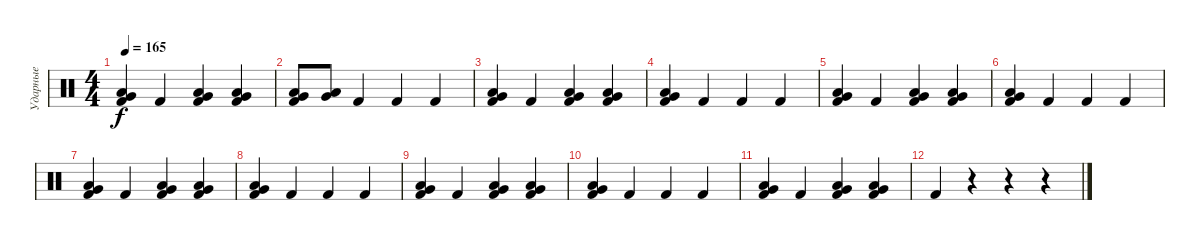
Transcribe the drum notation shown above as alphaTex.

\track ("Ударные" "Ударные") {instrument percussion}
\staff {score}
\articulation defaults
\ts (4 4)
\tempo 165
\clef neutral
\ks c
("Kick (hit) 2" "Very Low Tom (hit)" "Low Floor Tom (hit)").4{dy f} "Kick (hit) 2".4 ("Kick (hit) 2" "Low Floor Tom (hit)" "Very Low Tom (hit)").4 ("Kick (hit) 2" "Low Floor Tom (hit)" "Very Low Tom (hit)").4 |
("Kick (hit) 2" "Very Low Tom (hit)" "Low Floor Tom (hit)").8 ("Low Floor Tom (hit)" "Very Low Tom (hit)").8 "Kick (hit) 2".4 "Kick (hit) 2".4 "Kick (hit) 2".4 |
("Kick (hit) 2" "Very Low Tom (hit)" "Low Floor Tom (hit)").4 "Kick (hit) 2".4 ("Kick (hit) 2" "Low Floor Tom (hit)" "Very Low Tom (hit)").4 ("Kick (hit) 2" "Low Floor Tom (hit)" "Very Low Tom (hit)").4 |
("Kick (hit) 2" "Very Low Tom (hit)" "Low Floor Tom (hit)").4 "Kick (hit) 2".4 "Kick (hit) 2".4 "Kick (hit) 2".4 |
("Kick (hit) 2" "Very Low Tom (hit)" "Low Floor Tom (hit)").4 "Kick (hit) 2".4 ("Kick (hit) 2" "Low Floor Tom (hit)" "Very Low Tom (hit)").4 ("Kick (hit) 2" "Low Floor Tom (hit)" "Very Low Tom (hit)").4 |
("Kick (hit) 2" "Very Low Tom (hit)" "Low Floor Tom (hit)").4 "Kick (hit) 2".4 "Kick (hit) 2".4 "Kick (hit) 2".4 |
("Kick (hit) 2" "Very Low Tom (hit)" "Low Floor Tom (hit)").4 "Kick (hit) 2".4 ("Kick (hit) 2" "Low Floor Tom (hit)" "Very Low Tom (hit)").4 ("Kick (hit) 2" "Low Floor Tom (hit)" "Very Low Tom (hit)").4 |
("Kick (hit) 2" "Very Low Tom (hit)" "Low Floor Tom (hit)").4 "Kick (hit) 2".4 "Kick (hit) 2".4 "Kick (hit) 2".4 |
("Kick (hit) 2" "Very Low Tom (hit)" "Low Floor Tom (hit)").4 "Kick (hit) 2".4 ("Kick (hit) 2" "Low Floor Tom (hit)" "Very Low Tom (hit)").4 ("Kick (hit) 2" "Low Floor Tom (hit)" "Very Low Tom (hit)").4 |
("Kick (hit) 2" "Very Low Tom (hit)" "Low Floor Tom (hit)").4 "Kick (hit) 2".4 "Kick (hit) 2".4 "Kick (hit) 2".4 |
("Kick (hit) 2" "Very Low Tom (hit)" "Low Floor Tom (hit)").4 "Kick (hit) 2".4 ("Kick (hit) 2" "Low Floor Tom (hit)" "Very Low Tom (hit)").4 ("Kick (hit) 2" "Low Floor Tom (hit)" "Very Low Tom (hit)").4 |
"Kick (hit) 2".4 r.4 r.4 r.4
